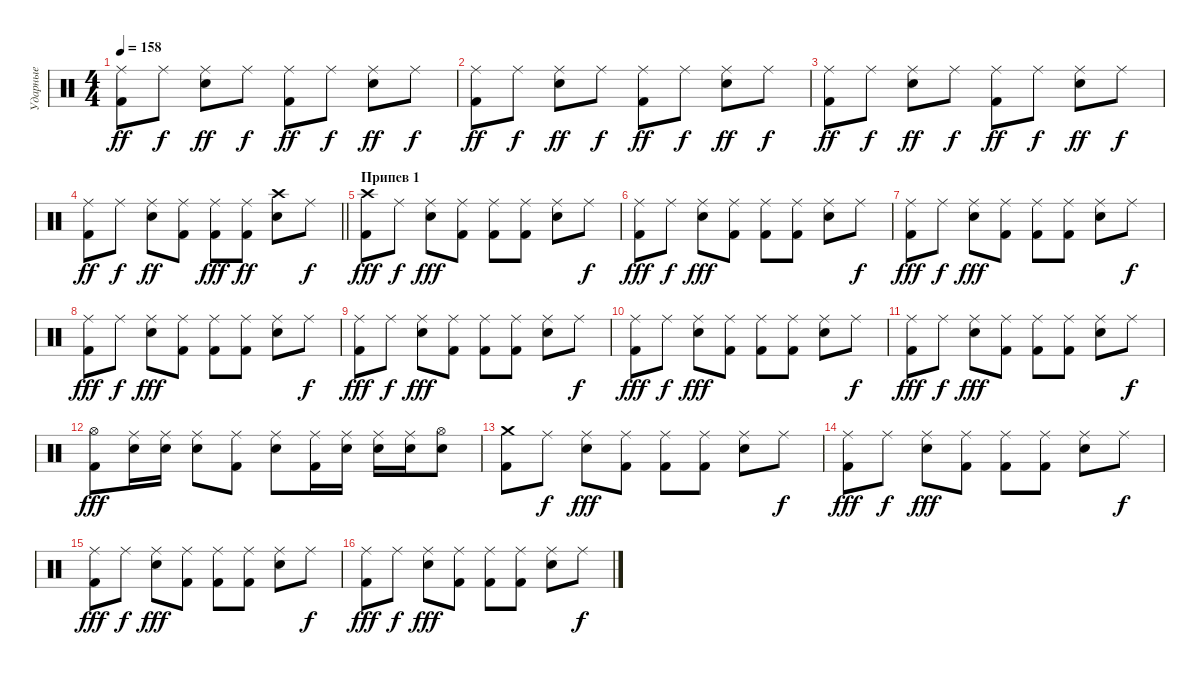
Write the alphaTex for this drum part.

\track ("Ударные" "Ударные") {instrument percussion}
\staff {score}
\articulation defaults
\ts (4 4)
\tempo 158
\clef neutral
\ks c
("Ride (middle)" "Kick (hit) 2").8{dy ff} "Ride (middle)".8{dy f} ("Ride (middle)" "Electric Snare (hit)").8{dy ff} "Ride (middle)".8{dy f} ("Ride (middle)" "Kick (hit) 2").8{dy ff} "Ride (middle)".8{dy f} ("Ride (middle)" "Electric Snare (hit)").8{dy ff} "Ride (middle)".8{dy f} |
("Ride (middle)" "Kick (hit) 2").8{dy ff} "Ride (middle)".8{dy f} ("Ride (middle)" "Electric Snare (hit)").8{dy ff} "Ride (middle)".8{dy f} ("Ride (middle)" "Kick (hit) 2").8{dy ff} "Ride (middle)".8{dy f} ("Ride (middle)" "Electric Snare (hit)").8{dy ff} "Ride (middle)".8{dy f} |
("Ride (middle)" "Kick (hit) 2").8{dy ff} "Ride (middle)".8{dy f} ("Ride (middle)" "Electric Snare (hit)").8{dy ff} "Ride (middle)".8{dy f} ("Ride (middle)" "Kick (hit) 2").8{dy ff} "Ride (middle)".8{dy f} ("Ride (middle)" "Electric Snare (hit)").8{dy ff} "Ride (middle)".8{dy f} |
\barLineRight lightlight
("Ride (middle)" "Kick (hit) 2").8{dy ff} "Ride (middle)".8{dy f} ("Ride (middle)" "Electric Snare (hit)").8{dy ff} ("Ride (middle)" "Kick (hit) 2").8 ("Ride (middle)" "Kick (hit) 2").8{dy fff} ("Ride (middle)" "Kick (hit) 2").8{dy ff} ("Crash high (hit)" "Snare (hit) 2").8 "Ride (middle)".8{dy f} |
\section ("" "Припев 1")
("Crash high (hit)" "Kick (hit) 2").8{dy fff} "Ride (middle)".8{dy f} ("Ride (middle)" "Electric Snare (hit)").8{dy fff} ("Ride (middle)" "Kick (hit) 2").8 ("Ride (middle)" "Kick (hit) 2").8 ("Ride (middle)" "Kick (hit) 2").8 ("Ride (middle)" "Snare (hit) 2").8 "Ride (middle)".8{dy f} |
("Ride (middle)" "Kick (hit) 2").8{dy fff} "Ride (middle)".8{dy f} ("Ride (middle)" "Electric Snare (hit)").8{dy fff} ("Ride (middle)" "Kick (hit) 2").8 ("Ride (middle)" "Kick (hit) 2").8 ("Ride (middle)" "Kick (hit) 2").8 ("Ride (middle)" "Snare (hit) 2").8 "Ride (middle)".8{dy f} |
("Ride (middle)" "Kick (hit) 2").8{dy fff} "Ride (middle)".8{dy f} ("Ride (middle)" "Electric Snare (hit)").8{dy fff} ("Ride (middle)" "Kick (hit) 2").8 ("Ride (middle)" "Kick (hit) 2").8 ("Ride (middle)" "Kick (hit) 2").8 ("Ride (middle)" "Snare (hit) 2").8 "Ride (middle)".8{dy f} |
("Ride (middle)" "Kick (hit) 2").8{dy fff} "Ride (middle)".8{dy f} ("Ride (middle)" "Electric Snare (hit)").8{dy fff} ("Ride (middle)" "Kick (hit) 2").8 ("Ride (middle)" "Kick (hit) 2").8 ("Ride (middle)" "Kick (hit) 2").8 ("Ride (middle)" "Snare (hit) 2").8 "Ride (middle)".8{dy f} |
("Ride (middle)" "Kick (hit) 2").8{dy fff} "Ride (middle)".8{dy f} ("Ride (middle)" "Electric Snare (hit)").8{dy fff} ("Ride (middle)" "Kick (hit) 2").8 ("Ride (middle)" "Kick (hit) 2").8 ("Ride (middle)" "Kick (hit) 2").8 ("Ride (middle)" "Snare (hit) 2").8 "Ride (middle)".8{dy f} |
("Ride (middle)" "Kick (hit) 2").8{dy fff} "Ride (middle)".8{dy f} ("Ride (middle)" "Electric Snare (hit)").8{dy fff} ("Ride (middle)" "Kick (hit) 2").8 ("Ride (middle)" "Kick (hit) 2").8 ("Ride (middle)" "Kick (hit) 2").8 ("Ride (middle)" "Snare (hit) 2").8 "Ride (middle)".8{dy f} |
("Ride (middle)" "Kick (hit) 2").8{dy fff} "Ride (middle)".8{dy f} ("Ride (middle)" "Electric Snare (hit)").8{dy fff} ("Ride (middle)" "Kick (hit) 2").8 ("Ride (middle)" "Kick (hit) 2").8 ("Ride (middle)" "Kick (hit) 2").8 ("Ride (middle)" "Snare (hit) 2").8 "Ride (middle)".8{dy f} |
("Hi-Hat (open)" "Kick (hit) 2").8{dy fff} ("Ride (middle)" "Electric Snare (hit)").16 ("Ride (middle)" "Electric Snare (hit)").16 ("Ride (middle)" "Electric Snare (hit)").8 ("Ride (middle)" "Kick (hit) 2").8 ("Ride (middle)" "Snare (hit) 2").8 ("Ride (middle)" "Kick (hit) 2").16 ("Ride (middle)" "Electric Snare (hit)").16 ("Ride (middle)" "Electric Snare (hit)").16 ("Ride (middle)" "Electric Snare (hit)").16 ("Hi-Hat (open)" "Electric Snare (hit)").8 |
("Crash medium (hit)" "Kick (hit) 2").8 "Ride (middle)".8{dy f} ("Ride (middle)" "Electric Snare (hit)").8{dy fff} ("Ride (middle)" "Kick (hit) 2").8 ("Ride (middle)" "Kick (hit) 2").8 ("Ride (middle)" "Kick (hit) 2").8 ("Ride (middle)" "Snare (hit) 2").8 "Ride (middle)".8{dy f} |
("Ride (middle)" "Kick (hit) 2").8{dy fff} "Ride (middle)".8{dy f} ("Ride (middle)" "Electric Snare (hit)").8{dy fff} ("Ride (middle)" "Kick (hit) 2").8 ("Ride (middle)" "Kick (hit) 2").8 ("Ride (middle)" "Kick (hit) 2").8 ("Ride (middle)" "Snare (hit) 2").8 "Ride (middle)".8{dy f} |
("Ride (middle)" "Kick (hit) 2").8{dy fff} "Ride (middle)".8{dy f} ("Ride (middle)" "Electric Snare (hit)").8{dy fff} ("Ride (middle)" "Kick (hit) 2").8 ("Ride (middle)" "Kick (hit) 2").8 ("Ride (middle)" "Kick (hit) 2").8 ("Ride (middle)" "Snare (hit) 2").8 "Ride (middle)".8{dy f} |
("Ride (middle)" "Kick (hit) 2").8{dy fff} "Ride (middle)".8{dy f} ("Ride (middle)" "Electric Snare (hit)").8{dy fff} ("Ride (middle)" "Kick (hit) 2").8 ("Ride (middle)" "Kick (hit) 2").8 ("Ride (middle)" "Kick (hit) 2").8 ("Ride (middle)" "Snare (hit) 2").8 "Ride (middle)".8{dy f}
